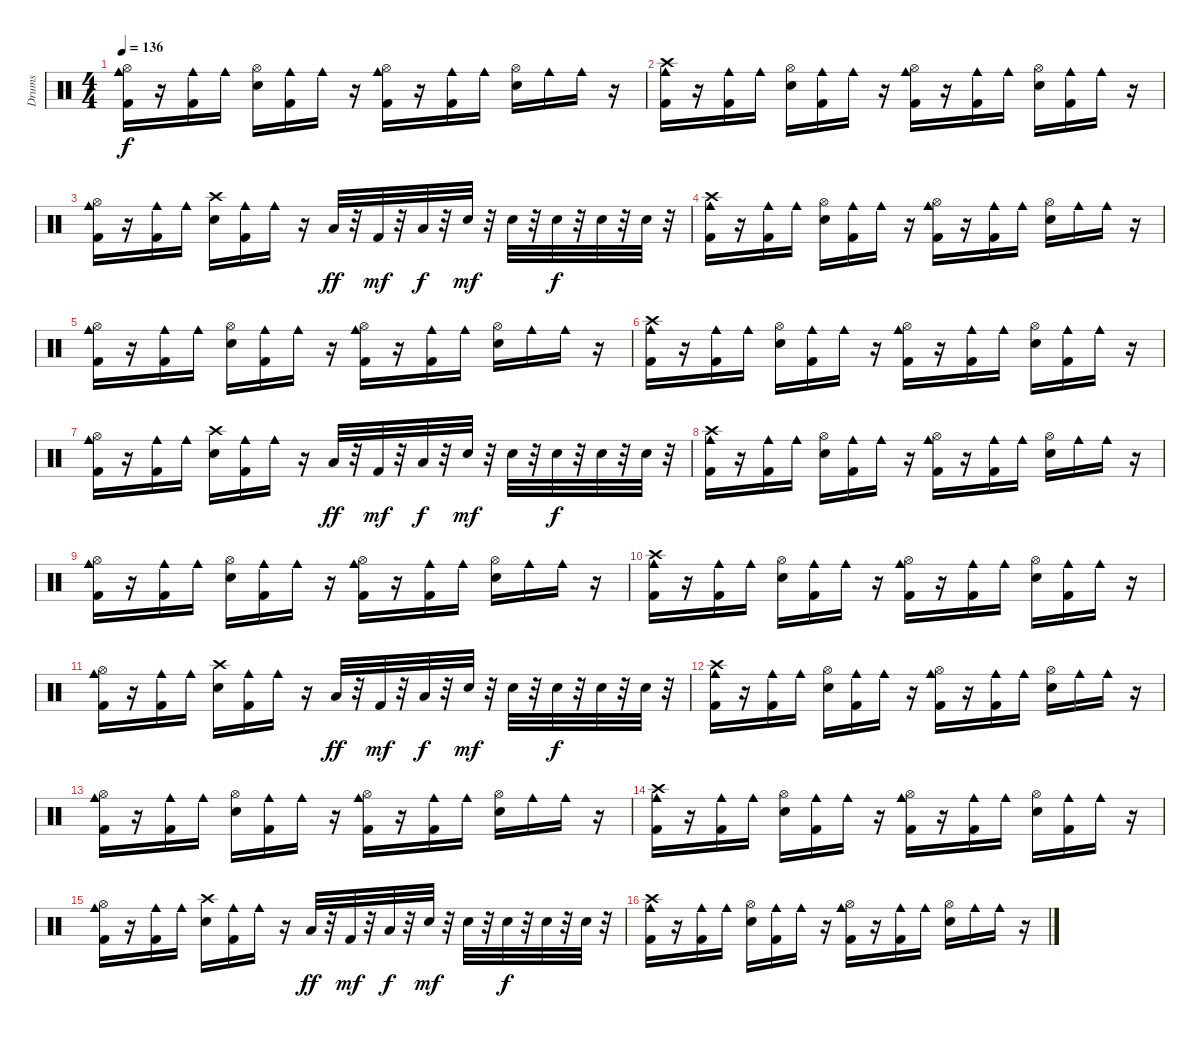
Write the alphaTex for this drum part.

\track ("Drums" "Drums") {instrument percussion}
\staff {score}
\articulation defaults
\ts (4 4)
\tempo 136
\clef neutral
\ks c
("Kick (hit) 2" "Cowbell medium (hit)" "Hi-Hat (open)").16{dy f} r.16 ("Kick (hit) 2" "Cowbell medium (hit)").16 "Cowbell medium (hit)".16 ("Metronome (bell)" "Hi-Hat (open)").16 ("Cowbell medium (hit)" "Kick (hit) 2").16 "Cowbell medium (hit)".16 r.16 ("Kick (hit) 2" "Cowbell medium (hit)" "Hi-Hat (open)").16 r.16 ("Kick (hit) 2" "Cowbell medium (hit)").16 "Cowbell medium (hit)".16 ("Metronome (bell)" "Hi-Hat (open)").16 "Cowbell medium (hit)".16 "Cowbell medium (hit)".16 r.16 |
("Cowbell medium (hit)" "Kick (hit) 2" "Crash high (hit)").16 r.16 ("Cowbell medium (hit)" "Kick (hit) 2").16 "Cowbell medium (hit)".16 ("Metronome (bell)" "Hi-Hat (open)").16 ("Cowbell medium (hit)" "Kick (hit) 2").16 "Cowbell medium (hit)".16 r.16 ("Kick (hit) 2" "Cowbell medium (hit)" "Hi-Hat (open)").16 r.16 ("Cowbell medium (hit)" "Kick (hit) 2").16 "Cowbell medium (hit)".16 ("Metronome (bell)" "Hi-Hat (open)").16 ("Cowbell medium (hit)" "Kick (hit) 2").16 "Cowbell medium (hit)".16 r.16 |
("Kick (hit) 2" "Cowbell medium (hit)" "Hi-Hat (open)").16 r.16 ("Kick (hit) 2" "Cowbell medium (hit)").16 "Cowbell medium (hit)".16 ("Metronome (bell)" "Crash high (hit)").16 ("Cowbell medium (hit)" "Kick (hit) 2").16 "Cowbell medium (hit)".16 r.16 "Low Tom (hit)".32{dy ff} r.32 "Kick (hit) 2".32{dy mf} r.32 "Low Floor Tom (hit)".32{dy f} r.32 "Metronome (bell)".32{dy mf} r.32 "Metronome (bell)".32 r.32 "Metronome (bell)".32{dy f} r.32 "Metronome (bell)".32 r.32 "Metronome (bell)".32 r.32 |
("Cowbell medium (hit)" "Kick (hit) 2" "Crash high (hit)").16 r.16 ("Cowbell medium (hit)" "Kick (hit) 2").16 "Cowbell medium (hit)".16 ("Metronome (bell)" "Hi-Hat (open)").16 ("Cowbell medium (hit)" "Kick (hit) 2").16 "Cowbell medium (hit)".16 r.16 ("Kick (hit) 2" "Cowbell medium (hit)" "Hi-Hat (open)").16 r.16 ("Cowbell medium (hit)" "Kick (hit) 2").16 "Cowbell medium (hit)".16 ("Metronome (bell)" "Hi-Hat (open)").16 "Cowbell medium (hit)".16 "Cowbell medium (hit)".16 r.16 |
("Kick (hit) 2" "Cowbell medium (hit)" "Hi-Hat (open)").16 r.16 ("Kick (hit) 2" "Cowbell medium (hit)").16 "Cowbell medium (hit)".16 ("Metronome (bell)" "Hi-Hat (open)").16 ("Cowbell medium (hit)" "Kick (hit) 2").16 "Cowbell medium (hit)".16 r.16 ("Kick (hit) 2" "Cowbell medium (hit)" "Hi-Hat (open)").16 r.16 ("Kick (hit) 2" "Cowbell medium (hit)").16 "Cowbell medium (hit)".16 ("Metronome (bell)" "Hi-Hat (open)").16 "Cowbell medium (hit)".16 "Cowbell medium (hit)".16 r.16 |
("Cowbell medium (hit)" "Kick (hit) 2" "Crash high (hit)").16 r.16 ("Cowbell medium (hit)" "Kick (hit) 2").16 "Cowbell medium (hit)".16 ("Metronome (bell)" "Hi-Hat (open)").16 ("Cowbell medium (hit)" "Kick (hit) 2").16 "Cowbell medium (hit)".16 r.16 ("Kick (hit) 2" "Cowbell medium (hit)" "Hi-Hat (open)").16 r.16 ("Cowbell medium (hit)" "Kick (hit) 2").16 "Cowbell medium (hit)".16 ("Metronome (bell)" "Hi-Hat (open)").16 ("Cowbell medium (hit)" "Kick (hit) 2").16 "Cowbell medium (hit)".16 r.16 |
("Kick (hit) 2" "Cowbell medium (hit)" "Hi-Hat (open)").16 r.16 ("Kick (hit) 2" "Cowbell medium (hit)").16 "Cowbell medium (hit)".16 ("Metronome (bell)" "Crash high (hit)").16 ("Cowbell medium (hit)" "Kick (hit) 2").16 "Cowbell medium (hit)".16 r.16 "Low Tom (hit)".32{dy ff} r.32 "Kick (hit) 2".32{dy mf} r.32 "Low Floor Tom (hit)".32{dy f} r.32 "Metronome (bell)".32{dy mf} r.32 "Metronome (bell)".32 r.32 "Metronome (bell)".32{dy f} r.32 "Metronome (bell)".32 r.32 "Metronome (bell)".32 r.32 |
("Cowbell medium (hit)" "Kick (hit) 2" "Crash high (hit)").16 r.16 ("Cowbell medium (hit)" "Kick (hit) 2").16 "Cowbell medium (hit)".16 ("Metronome (bell)" "Hi-Hat (open)").16 ("Cowbell medium (hit)" "Kick (hit) 2").16 "Cowbell medium (hit)".16 r.16 ("Kick (hit) 2" "Cowbell medium (hit)" "Hi-Hat (open)").16 r.16 ("Cowbell medium (hit)" "Kick (hit) 2").16 "Cowbell medium (hit)".16 ("Metronome (bell)" "Hi-Hat (open)").16 "Cowbell medium (hit)".16 "Cowbell medium (hit)".16 r.16 |
("Kick (hit) 2" "Cowbell medium (hit)" "Hi-Hat (open)").16 r.16 ("Kick (hit) 2" "Cowbell medium (hit)").16 "Cowbell medium (hit)".16 ("Metronome (bell)" "Hi-Hat (open)").16 ("Cowbell medium (hit)" "Kick (hit) 2").16 "Cowbell medium (hit)".16 r.16 ("Kick (hit) 2" "Cowbell medium (hit)" "Hi-Hat (open)").16 r.16 ("Kick (hit) 2" "Cowbell medium (hit)").16 "Cowbell medium (hit)".16 ("Metronome (bell)" "Hi-Hat (open)").16 "Cowbell medium (hit)".16 "Cowbell medium (hit)".16 r.16 |
("Cowbell medium (hit)" "Kick (hit) 2" "Crash high (hit)").16 r.16 ("Cowbell medium (hit)" "Kick (hit) 2").16 "Cowbell medium (hit)".16 ("Metronome (bell)" "Hi-Hat (open)").16 ("Cowbell medium (hit)" "Kick (hit) 2").16 "Cowbell medium (hit)".16 r.16 ("Kick (hit) 2" "Cowbell medium (hit)" "Hi-Hat (open)").16 r.16 ("Cowbell medium (hit)" "Kick (hit) 2").16 "Cowbell medium (hit)".16 ("Metronome (bell)" "Hi-Hat (open)").16 ("Cowbell medium (hit)" "Kick (hit) 2").16 "Cowbell medium (hit)".16 r.16 |
("Kick (hit) 2" "Cowbell medium (hit)" "Hi-Hat (open)").16 r.16 ("Kick (hit) 2" "Cowbell medium (hit)").16 "Cowbell medium (hit)".16 ("Metronome (bell)" "Crash high (hit)").16 ("Cowbell medium (hit)" "Kick (hit) 2").16 "Cowbell medium (hit)".16 r.16 "Low Tom (hit)".32{dy ff} r.32 "Kick (hit) 2".32{dy mf} r.32 "Low Floor Tom (hit)".32{dy f} r.32 "Metronome (bell)".32{dy mf} r.32 "Metronome (bell)".32 r.32 "Metronome (bell)".32{dy f} r.32 "Metronome (bell)".32 r.32 "Metronome (bell)".32 r.32 |
("Cowbell medium (hit)" "Kick (hit) 2" "Crash high (hit)").16 r.16 ("Cowbell medium (hit)" "Kick (hit) 2").16 "Cowbell medium (hit)".16 ("Metronome (bell)" "Hi-Hat (open)").16 ("Cowbell medium (hit)" "Kick (hit) 2").16 "Cowbell medium (hit)".16 r.16 ("Kick (hit) 2" "Cowbell medium (hit)" "Hi-Hat (open)").16 r.16 ("Cowbell medium (hit)" "Kick (hit) 2").16 "Cowbell medium (hit)".16 ("Metronome (bell)" "Hi-Hat (open)").16 "Cowbell medium (hit)".16 "Cowbell medium (hit)".16 r.16 |
("Kick (hit) 2" "Cowbell medium (hit)" "Hi-Hat (open)").16 r.16 ("Kick (hit) 2" "Cowbell medium (hit)").16 "Cowbell medium (hit)".16 ("Metronome (bell)" "Hi-Hat (open)").16 ("Cowbell medium (hit)" "Kick (hit) 2").16 "Cowbell medium (hit)".16 r.16 ("Kick (hit) 2" "Cowbell medium (hit)" "Hi-Hat (open)").16 r.16 ("Kick (hit) 2" "Cowbell medium (hit)").16 "Cowbell medium (hit)".16 ("Metronome (bell)" "Hi-Hat (open)").16 "Cowbell medium (hit)".16 "Cowbell medium (hit)".16 r.16 |
("Cowbell medium (hit)" "Kick (hit) 2" "Crash high (hit)").16 r.16 ("Cowbell medium (hit)" "Kick (hit) 2").16 "Cowbell medium (hit)".16 ("Metronome (bell)" "Hi-Hat (open)").16 ("Cowbell medium (hit)" "Kick (hit) 2").16 "Cowbell medium (hit)".16 r.16 ("Kick (hit) 2" "Cowbell medium (hit)" "Hi-Hat (open)").16 r.16 ("Cowbell medium (hit)" "Kick (hit) 2").16 "Cowbell medium (hit)".16 ("Metronome (bell)" "Hi-Hat (open)").16 ("Cowbell medium (hit)" "Kick (hit) 2").16 "Cowbell medium (hit)".16 r.16 |
("Kick (hit) 2" "Cowbell medium (hit)" "Hi-Hat (open)").16 r.16 ("Kick (hit) 2" "Cowbell medium (hit)").16 "Cowbell medium (hit)".16 ("Metronome (bell)" "Crash high (hit)").16 ("Cowbell medium (hit)" "Kick (hit) 2").16 "Cowbell medium (hit)".16 r.16 "Low Tom (hit)".32{dy ff} r.32 "Kick (hit) 2".32{dy mf} r.32 "Low Floor Tom (hit)".32{dy f} r.32 "Metronome (bell)".32{dy mf} r.32 "Metronome (bell)".32 r.32 "Metronome (bell)".32{dy f} r.32 "Metronome (bell)".32 r.32 "Metronome (bell)".32 r.32 |
("Cowbell medium (hit)" "Kick (hit) 2" "Crash high (hit)").16 r.16 ("Cowbell medium (hit)" "Kick (hit) 2").16 "Cowbell medium (hit)".16 ("Metronome (bell)" "Hi-Hat (open)").16 ("Cowbell medium (hit)" "Kick (hit) 2").16 "Cowbell medium (hit)".16 r.16 ("Kick (hit) 2" "Cowbell medium (hit)" "Hi-Hat (open)").16 r.16 ("Cowbell medium (hit)" "Kick (hit) 2").16 "Cowbell medium (hit)".16 ("Metronome (bell)" "Hi-Hat (open)").16 "Cowbell medium (hit)".16 "Cowbell medium (hit)".16 r.16
